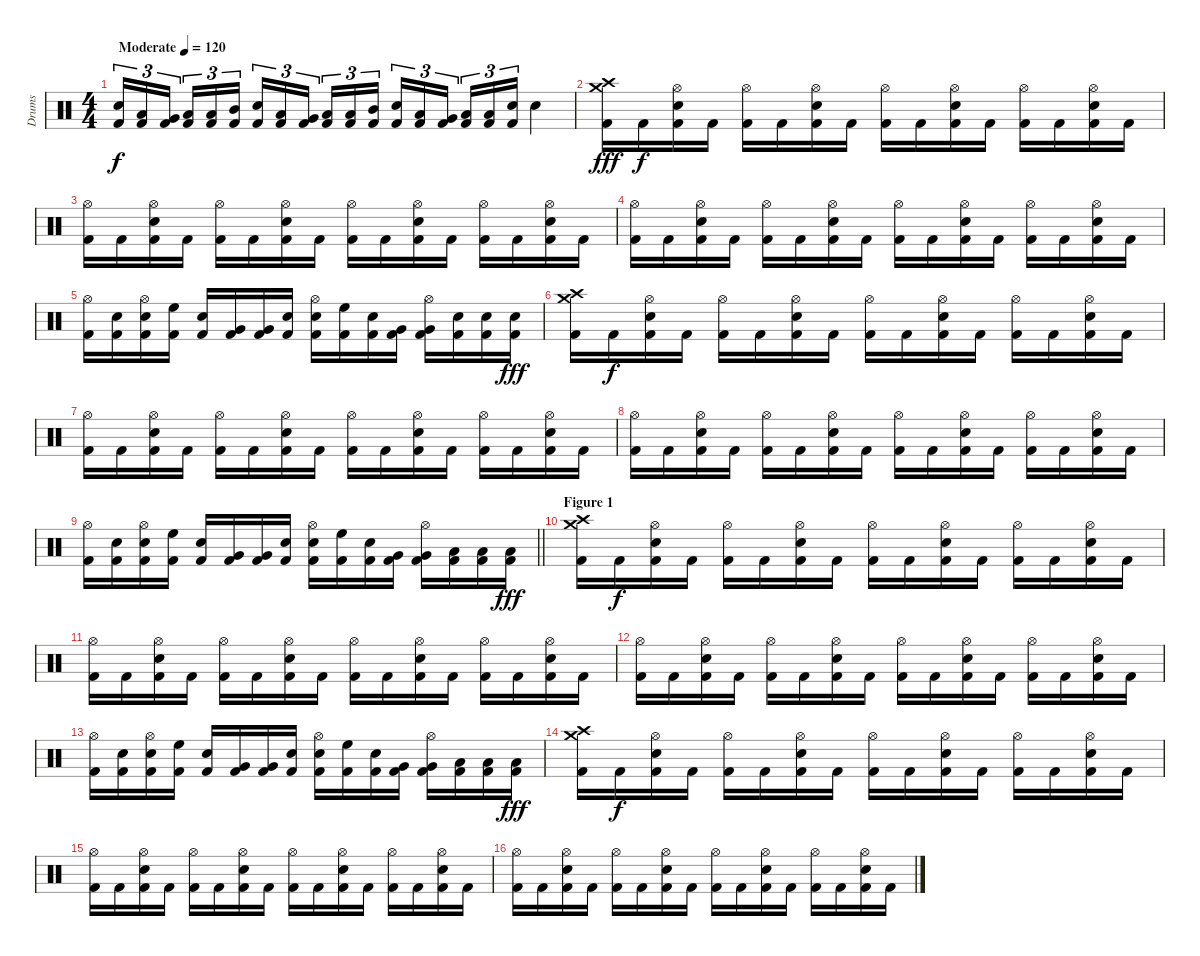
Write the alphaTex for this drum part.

\track ("Drums" "Drums") {instrument percussion}
\staff {score}
\articulation defaults
\ts (4 4)
\tempo (120 "Moderate")
\clef neutral
\ks c
("Electric Snare (hit)" "Kick (hit) 2").16{tu (3 2) dy f} ("Low Tom (hit)" "Kick (hit) 2").16{tu (3 2)} ("Very Low Tom (hit)" "Kick (hit) 2").16{tu (3 2) beam splitsecondary} ("Low Floor Tom (hit)" "Kick (hit) 2").16{tu (3 2)} ("Low Floor Tom (hit)" "Kick (hit) 2").16{tu (3 2)} ("Mid Tom (hit)" "Kick (hit) 2").16{tu (3 2)} ("Electric Snare (hit)" "Kick (hit) 2").16{tu (3 2)} ("Low Tom (hit)" "Kick (hit) 2").16{tu (3 2)} ("Very Low Tom (hit)" "Kick (hit) 2").16{tu (3 2) beam splitsecondary} ("Low Floor Tom (hit)" "Kick (hit) 2").16{tu (3 2)} ("Low Floor Tom (hit)" "Kick (hit) 2").16{tu (3 2)} ("Mid Tom (hit)" "Kick (hit) 2").16{tu (3 2)} ("Electric Snare (hit)" "Kick (hit) 2").16{tu (3 2)} ("Low Tom (hit)" "Kick (hit) 2").16{tu (3 2)} ("Very Low Tom (hit)" "Kick (hit) 2").16{tu (3 2) beam splitsecondary} ("Low Floor Tom (hit)" "Kick (hit) 2").16{tu (3 2)} ("Low Floor Tom (hit)" "Kick (hit) 2").16{tu (3 2)} ("Electric Snare (hit)" "Kick (hit) 2").16{tu (3 2)} "Electric Snare (hit)".4 |
("Crash high (hit)" "Crash medium (hit)" "Kick (hit) 2").16{dy fff} "Kick (hit) 2".16{dy f} ("Hi-Hat (open)" "Electric Snare (hit)" "Kick (hit) 2").16 "Kick (hit) 2".16 ("Hi-Hat (open)" "Kick (hit) 2").16 "Kick (hit) 2".16 ("Hi-Hat (open)" "Electric Snare (hit)" "Kick (hit) 2").16 "Kick (hit) 2".16 ("Hi-Hat (open)" "Kick (hit) 2").16 "Kick (hit) 2".16 ("Hi-Hat (open)" "Electric Snare (hit)" "Kick (hit) 2").16 "Kick (hit) 2".16 ("Hi-Hat (open)" "Kick (hit) 2").16 "Kick (hit) 2".16 ("Hi-Hat (open)" "Electric Snare (hit)" "Kick (hit) 2").16 "Kick (hit) 2".16 |
("Hi-Hat (open)" "Kick (hit) 2").16 "Kick (hit) 2".16 ("Hi-Hat (open)" "Electric Snare (hit)" "Kick (hit) 2").16 "Kick (hit) 2".16 ("Hi-Hat (open)" "Kick (hit) 2").16 "Kick (hit) 2".16 ("Hi-Hat (open)" "Electric Snare (hit)" "Kick (hit) 2").16 "Kick (hit) 2".16 ("Hi-Hat (open)" "Kick (hit) 2").16 "Kick (hit) 2".16 ("Hi-Hat (open)" "Electric Snare (hit)" "Kick (hit) 2").16 "Kick (hit) 2".16 ("Hi-Hat (open)" "Kick (hit) 2").16 "Kick (hit) 2".16 ("Hi-Hat (open)" "Electric Snare (hit)" "Kick (hit) 2").16 "Kick (hit) 2".16 |
("Hi-Hat (open)" "Kick (hit) 2").16 "Kick (hit) 2".16 ("Hi-Hat (open)" "Electric Snare (hit)" "Kick (hit) 2").16 "Kick (hit) 2".16 ("Hi-Hat (open)" "Kick (hit) 2").16 "Kick (hit) 2".16 ("Hi-Hat (open)" "Electric Snare (hit)" "Kick (hit) 2").16 "Kick (hit) 2".16 ("Hi-Hat (open)" "Kick (hit) 2").16 "Kick (hit) 2".16 ("Hi-Hat (open)" "Electric Snare (hit)" "Kick (hit) 2").16 "Kick (hit) 2".16 ("Hi-Hat (open)" "Kick (hit) 2").16 "Kick (hit) 2".16 ("Hi-Hat (open)" "Electric Snare (hit)" "Kick (hit) 2").16 "Kick (hit) 2".16 |
("Hi-Hat (open)" "Kick (hit) 2").16 ("Electric Snare (hit)" "Kick (hit) 2").16 ("Hi-Hat (open)" "Electric Snare (hit)" "Kick (hit) 2").16 ("High Floor Tom (hit)" "Kick (hit) 2").16 ("Electric Snare (hit)" "Kick (hit) 2").16 ("Very Low Tom (hit)" "Kick (hit) 2").16 ("Very Low Tom (hit)" "Kick (hit) 2").16 ("Electric Snare (hit)" "Kick (hit) 2").16 ("Hi-Hat (open)" "Electric Snare (hit)" "Kick (hit) 2").16 ("High Floor Tom (hit)" "Kick (hit) 2").16 ("Electric Snare (hit)" "Kick (hit) 2").16 ("Very Low Tom (hit)" "Kick (hit) 2").16 ("Hi-Hat (open)" "Very Low Tom (hit)" "Kick (hit) 2").16 ("Electric Snare (hit)" "Kick (hit) 2").16 ("Electric Snare (hit)" "Kick (hit) 2").16 ("Electric Snare (hit)" "Kick (hit) 2").16{dy fff} |
("Crash high (hit)" "Crash medium (hit)" "Kick (hit) 2").16 "Kick (hit) 2".16{dy f} ("Hi-Hat (open)" "Electric Snare (hit)" "Kick (hit) 2").16 "Kick (hit) 2".16 ("Hi-Hat (open)" "Kick (hit) 2").16 "Kick (hit) 2".16 ("Hi-Hat (open)" "Electric Snare (hit)" "Kick (hit) 2").16 "Kick (hit) 2".16 ("Hi-Hat (open)" "Kick (hit) 2").16 "Kick (hit) 2".16 ("Hi-Hat (open)" "Electric Snare (hit)" "Kick (hit) 2").16 "Kick (hit) 2".16 ("Hi-Hat (open)" "Kick (hit) 2").16 "Kick (hit) 2".16 ("Hi-Hat (open)" "Electric Snare (hit)" "Kick (hit) 2").16 "Kick (hit) 2".16 |
("Hi-Hat (open)" "Kick (hit) 2").16 "Kick (hit) 2".16 ("Hi-Hat (open)" "Electric Snare (hit)" "Kick (hit) 2").16 "Kick (hit) 2".16 ("Hi-Hat (open)" "Kick (hit) 2").16 "Kick (hit) 2".16 ("Hi-Hat (open)" "Electric Snare (hit)" "Kick (hit) 2").16 "Kick (hit) 2".16 ("Hi-Hat (open)" "Kick (hit) 2").16 "Kick (hit) 2".16 ("Hi-Hat (open)" "Electric Snare (hit)" "Kick (hit) 2").16 "Kick (hit) 2".16 ("Hi-Hat (open)" "Kick (hit) 2").16 "Kick (hit) 2".16 ("Hi-Hat (open)" "Electric Snare (hit)" "Kick (hit) 2").16 "Kick (hit) 2".16 |
("Hi-Hat (open)" "Kick (hit) 2").16 "Kick (hit) 2".16 ("Hi-Hat (open)" "Electric Snare (hit)" "Kick (hit) 2").16 "Kick (hit) 2".16 ("Hi-Hat (open)" "Kick (hit) 2").16 "Kick (hit) 2".16 ("Hi-Hat (open)" "Electric Snare (hit)" "Kick (hit) 2").16 "Kick (hit) 2".16 ("Hi-Hat (open)" "Kick (hit) 2").16 "Kick (hit) 2".16 ("Hi-Hat (open)" "Electric Snare (hit)" "Kick (hit) 2").16 "Kick (hit) 2".16 ("Hi-Hat (open)" "Kick (hit) 2").16 "Kick (hit) 2".16 ("Hi-Hat (open)" "Electric Snare (hit)" "Kick (hit) 2").16 "Kick (hit) 2".16 |
\barLineRight lightlight
("Hi-Hat (open)" "Kick (hit) 2").16 ("Electric Snare (hit)" "Kick (hit) 2").16 ("Hi-Hat (open)" "Electric Snare (hit)" "Kick (hit) 2").16 ("High Floor Tom (hit)" "Kick (hit) 2").16 ("Electric Snare (hit)" "Kick (hit) 2").16 ("Very Low Tom (hit)" "Kick (hit) 2").16 ("Very Low Tom (hit)" "Kick (hit) 2").16 ("Electric Snare (hit)" "Kick (hit) 2").16 ("Hi-Hat (open)" "Electric Snare (hit)" "Kick (hit) 2").16 ("High Floor Tom (hit)" "Kick (hit) 2").16 ("Electric Snare (hit)" "Kick (hit) 2").16 ("Very Low Tom (hit)" "Kick (hit) 2").16 ("Hi-Hat (open)" "Very Low Tom (hit)" "Kick (hit) 2").16 ("Low Tom (hit)" "Kick (hit) 2").16 ("Low Tom (hit)" "Kick (hit) 2").16 ("Low Floor Tom (hit)" "Kick (hit) 2").16{dy fff} |
\section ("" "Figure 1")
("Crash high (hit)" "Crash medium (hit)" "Kick (hit) 2").16 "Kick (hit) 2".16{dy f} ("Hi-Hat (open)" "Electric Snare (hit)" "Kick (hit) 2").16 "Kick (hit) 2".16 ("Hi-Hat (open)" "Kick (hit) 2").16 "Kick (hit) 2".16 ("Hi-Hat (open)" "Electric Snare (hit)" "Kick (hit) 2").16 "Kick (hit) 2".16 ("Hi-Hat (open)" "Kick (hit) 2").16 "Kick (hit) 2".16 ("Hi-Hat (open)" "Electric Snare (hit)" "Kick (hit) 2").16 "Kick (hit) 2".16 ("Hi-Hat (open)" "Kick (hit) 2").16 "Kick (hit) 2".16 ("Hi-Hat (open)" "Electric Snare (hit)" "Kick (hit) 2").16 "Kick (hit) 2".16 |
("Hi-Hat (open)" "Kick (hit) 2").16 "Kick (hit) 2".16 ("Hi-Hat (open)" "Electric Snare (hit)" "Kick (hit) 2").16 "Kick (hit) 2".16 ("Hi-Hat (open)" "Kick (hit) 2").16 "Kick (hit) 2".16 ("Hi-Hat (open)" "Electric Snare (hit)" "Kick (hit) 2").16 "Kick (hit) 2".16 ("Hi-Hat (open)" "Kick (hit) 2").16 "Kick (hit) 2".16 ("Hi-Hat (open)" "Electric Snare (hit)" "Kick (hit) 2").16 "Kick (hit) 2".16 ("Hi-Hat (open)" "Kick (hit) 2").16 "Kick (hit) 2".16 ("Hi-Hat (open)" "Electric Snare (hit)" "Kick (hit) 2").16 "Kick (hit) 2".16 |
("Hi-Hat (open)" "Kick (hit) 2").16 "Kick (hit) 2".16 ("Hi-Hat (open)" "Electric Snare (hit)" "Kick (hit) 2").16 "Kick (hit) 2".16 ("Hi-Hat (open)" "Kick (hit) 2").16 "Kick (hit) 2".16 ("Hi-Hat (open)" "Electric Snare (hit)" "Kick (hit) 2").16 "Kick (hit) 2".16 ("Hi-Hat (open)" "Kick (hit) 2").16 "Kick (hit) 2".16 ("Hi-Hat (open)" "Electric Snare (hit)" "Kick (hit) 2").16 "Kick (hit) 2".16 ("Hi-Hat (open)" "Kick (hit) 2").16 "Kick (hit) 2".16 ("Hi-Hat (open)" "Electric Snare (hit)" "Kick (hit) 2").16 "Kick (hit) 2".16 |
("Hi-Hat (open)" "Kick (hit) 2").16 ("Electric Snare (hit)" "Kick (hit) 2").16 ("Hi-Hat (open)" "Electric Snare (hit)" "Kick (hit) 2").16 ("High Floor Tom (hit)" "Kick (hit) 2").16 ("Electric Snare (hit)" "Kick (hit) 2").16 ("Very Low Tom (hit)" "Kick (hit) 2").16 ("Very Low Tom (hit)" "Kick (hit) 2").16 ("Electric Snare (hit)" "Kick (hit) 2").16 ("Hi-Hat (open)" "Electric Snare (hit)" "Kick (hit) 2").16 ("High Floor Tom (hit)" "Kick (hit) 2").16 ("Electric Snare (hit)" "Kick (hit) 2").16 ("Very Low Tom (hit)" "Kick (hit) 2").16 ("Hi-Hat (open)" "Very Low Tom (hit)" "Kick (hit) 2").16 ("Low Tom (hit)" "Kick (hit) 2").16 ("Low Tom (hit)" "Kick (hit) 2").16 ("Low Floor Tom (hit)" "Kick (hit) 2").16{dy fff} |
("Crash high (hit)" "Crash medium (hit)" "Kick (hit) 2").16 "Kick (hit) 2".16{dy f} ("Hi-Hat (open)" "Electric Snare (hit)" "Kick (hit) 2").16 "Kick (hit) 2".16 ("Hi-Hat (open)" "Kick (hit) 2").16 "Kick (hit) 2".16 ("Hi-Hat (open)" "Electric Snare (hit)" "Kick (hit) 2").16 "Kick (hit) 2".16 ("Hi-Hat (open)" "Kick (hit) 2").16 "Kick (hit) 2".16 ("Hi-Hat (open)" "Electric Snare (hit)" "Kick (hit) 2").16 "Kick (hit) 2".16 ("Hi-Hat (open)" "Kick (hit) 2").16 "Kick (hit) 2".16 ("Hi-Hat (open)" "Electric Snare (hit)" "Kick (hit) 2").16 "Kick (hit) 2".16 |
("Hi-Hat (open)" "Kick (hit) 2").16 "Kick (hit) 2".16 ("Hi-Hat (open)" "Electric Snare (hit)" "Kick (hit) 2").16 "Kick (hit) 2".16 ("Hi-Hat (open)" "Kick (hit) 2").16 "Kick (hit) 2".16 ("Hi-Hat (open)" "Electric Snare (hit)" "Kick (hit) 2").16 "Kick (hit) 2".16 ("Hi-Hat (open)" "Kick (hit) 2").16 "Kick (hit) 2".16 ("Hi-Hat (open)" "Electric Snare (hit)" "Kick (hit) 2").16 "Kick (hit) 2".16 ("Hi-Hat (open)" "Kick (hit) 2").16 "Kick (hit) 2".16 ("Hi-Hat (open)" "Electric Snare (hit)" "Kick (hit) 2").16 "Kick (hit) 2".16 |
("Hi-Hat (open)" "Kick (hit) 2").16 "Kick (hit) 2".16 ("Hi-Hat (open)" "Electric Snare (hit)" "Kick (hit) 2").16 "Kick (hit) 2".16 ("Hi-Hat (open)" "Kick (hit) 2").16 "Kick (hit) 2".16 ("Hi-Hat (open)" "Electric Snare (hit)" "Kick (hit) 2").16 "Kick (hit) 2".16 ("Hi-Hat (open)" "Kick (hit) 2").16 "Kick (hit) 2".16 ("Hi-Hat (open)" "Electric Snare (hit)" "Kick (hit) 2").16 "Kick (hit) 2".16 ("Hi-Hat (open)" "Kick (hit) 2").16 "Kick (hit) 2".16 ("Hi-Hat (open)" "Electric Snare (hit)" "Kick (hit) 2").16 "Kick (hit) 2".16
